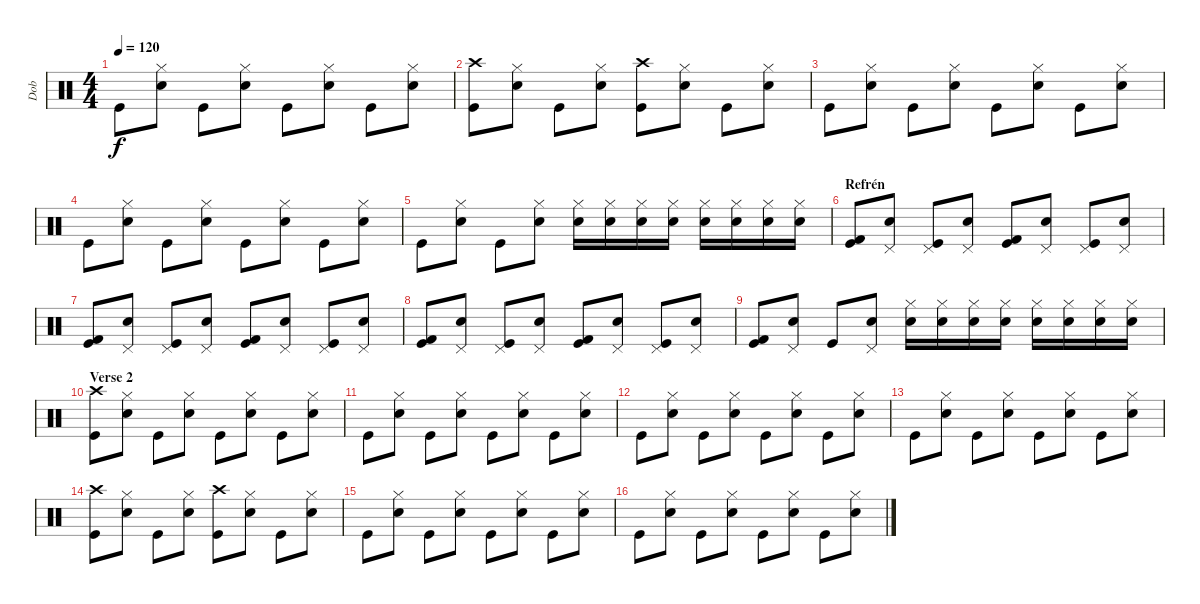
\track ("Dob" "Dob") {instrument percussion}
\staff {score}
\articulation defaults
\ts (4 4)
\tempo 120
\clef neutral
\ks c "Kick (hit)".8{dy f}
("Hi-Hat (closed)" "Electric Snare (hit)").8 "Kick (hit)".8 ("Hi-Hat (closed)" "Electric Snare (hit)").8 "Kick (hit)".8 ("Hi-Hat (closed)" "Electric Snare (hit)").8 "Kick (hit)".8 ("Hi-Hat (closed)" "Electric Snare (hit)").8 |
("Kick (hit)" "Crash high (hit)").8 ("Hi-Hat (closed)" "Electric Snare (hit)").8 "Kick (hit)".8 ("Hi-Hat (closed)" "Electric Snare (hit)").8 ("Kick (hit)" "Crash high (hit)").8 ("Hi-Hat (closed)" "Electric Snare (hit)").8 "Kick (hit)".8 ("Hi-Hat (closed)" "Electric Snare (hit)").8 |
"Kick (hit)".8 ("Hi-Hat (closed)" "Electric Snare (hit)").8 "Kick (hit)".8 ("Hi-Hat (closed)" "Electric Snare (hit)").8 "Kick (hit)".8 ("Hi-Hat (closed)" "Electric Snare (hit)").8 "Kick (hit)".8 ("Hi-Hat (closed)" "Electric Snare (hit)").8 |
"Kick (hit)".8 ("Hi-Hat (closed)" "Electric Snare (hit)").8 "Kick (hit)".8 ("Hi-Hat (closed)" "Electric Snare (hit)").8 "Kick (hit)".8 ("Hi-Hat (closed)" "Electric Snare (hit)").8 "Kick (hit)".8 ("Hi-Hat (closed)" "Electric Snare (hit)").8 |
"Kick (hit)".8 ("Hi-Hat (closed)" "Electric Snare (hit)").8 "Kick (hit)".8 ("Hi-Hat (closed)" "Electric Snare (hit)").8 ("Hi-Hat (closed)" "Electric Snare (hit)").16 ("Hi-Hat (closed)" "Electric Snare (hit)").16 ("Hi-Hat (closed)" "Electric Snare (hit)").16 ("Hi-Hat (closed)" "Electric Snare (hit)").16 ("Hi-Hat (closed)" "Electric Snare (hit)").16 ("Hi-Hat (closed)" "Electric Snare (hit)").16 ("Hi-Hat (closed)" "Electric Snare (hit)").16 ("Hi-Hat (closed)" "Electric Snare (hit)").16 |
\section ("" "Refrén")
("Kick (hit)" "Kick (hit) 2").8 ("Pedal Hi-Hat (hit)" "Electric Snare (hit)").8 ("Pedal Hi-Hat (hit)" "Kick (hit)").8 ("Pedal Hi-Hat (hit)" "Electric Snare (hit)").8 ("Kick (hit)" "Kick (hit) 2").8 ("Pedal Hi-Hat (hit)" "Electric Snare (hit)").8 ("Pedal Hi-Hat (hit)" "Kick (hit)").8 ("Pedal Hi-Hat (hit)" "Electric Snare (hit)").8 |
("Kick (hit)" "Kick (hit) 2").8 ("Pedal Hi-Hat (hit)" "Electric Snare (hit)").8 ("Pedal Hi-Hat (hit)" "Kick (hit)").8 ("Pedal Hi-Hat (hit)" "Electric Snare (hit)").8 ("Kick (hit)" "Kick (hit) 2").8 ("Pedal Hi-Hat (hit)" "Electric Snare (hit)").8 ("Pedal Hi-Hat (hit)" "Kick (hit)").8 ("Pedal Hi-Hat (hit)" "Electric Snare (hit)").8 |
("Kick (hit)" "Kick (hit) 2").8 ("Pedal Hi-Hat (hit)" "Electric Snare (hit)").8 ("Pedal Hi-Hat (hit)" "Kick (hit)").8 ("Pedal Hi-Hat (hit)" "Electric Snare (hit)").8 ("Kick (hit)" "Kick (hit) 2").8 ("Pedal Hi-Hat (hit)" "Electric Snare (hit)").8 ("Pedal Hi-Hat (hit)" "Kick (hit)").8 ("Pedal Hi-Hat (hit)" "Electric Snare (hit)").8 |
("Kick (hit)" "Kick (hit) 2").8 ("Pedal Hi-Hat (hit)" "Electric Snare (hit)").8 "Kick (hit)".8 ("Pedal Hi-Hat (hit)" "Electric Snare (hit)").8 ("Hi-Hat (closed)" "Electric Snare (hit)").16 ("Hi-Hat (closed)" "Electric Snare (hit)").16 ("Hi-Hat (closed)" "Electric Snare (hit)").16 ("Hi-Hat (closed)" "Electric Snare (hit)").16 ("Hi-Hat (closed)" "Electric Snare (hit)").16 ("Hi-Hat (closed)" "Electric Snare (hit)").16 ("Hi-Hat (closed)" "Electric Snare (hit)").16 ("Hi-Hat (closed)" "Electric Snare (hit)").16 |
\section ("" "Verse 2")
("Kick (hit)" "Crash high (hit)").8 ("Hi-Hat (closed)" "Electric Snare (hit)").8 "Kick (hit)".8 ("Hi-Hat (closed)" "Electric Snare (hit)").8 "Kick (hit)".8 ("Hi-Hat (closed)" "Electric Snare (hit)").8 "Kick (hit)".8 ("Hi-Hat (closed)" "Electric Snare (hit)").8 |
"Kick (hit)".8 ("Hi-Hat (closed)" "Electric Snare (hit)").8 "Kick (hit)".8 ("Hi-Hat (closed)" "Electric Snare (hit)").8 "Kick (hit)".8 ("Hi-Hat (closed)" "Electric Snare (hit)").8 "Kick (hit)".8 ("Hi-Hat (closed)" "Electric Snare (hit)").8 |
"Kick (hit)".8 ("Hi-Hat (closed)" "Electric Snare (hit)").8 "Kick (hit)".8 ("Hi-Hat (closed)" "Electric Snare (hit)").8 "Kick (hit)".8 ("Hi-Hat (closed)" "Electric Snare (hit)").8 "Kick (hit)".8 ("Hi-Hat (closed)" "Electric Snare (hit)").8 |
"Kick (hit)".8 ("Hi-Hat (closed)" "Electric Snare (hit)").8 "Kick (hit)".8 ("Hi-Hat (closed)" "Electric Snare (hit)").8 "Kick (hit)".8 ("Hi-Hat (closed)" "Electric Snare (hit)").8 "Kick (hit)".8 ("Hi-Hat (closed)" "Electric Snare (hit)").8 |
("Kick (hit)" "Crash high (hit)").8 ("Hi-Hat (closed)" "Electric Snare (hit)").8 "Kick (hit)".8 ("Hi-Hat (closed)" "Electric Snare (hit)").8 ("Kick (hit)" "Crash high (hit)").8 ("Hi-Hat (closed)" "Electric Snare (hit)").8 "Kick (hit)".8 ("Hi-Hat (closed)" "Electric Snare (hit)").8 |
"Kick (hit)".8 ("Hi-Hat (closed)" "Electric Snare (hit)").8 "Kick (hit)".8 ("Hi-Hat (closed)" "Electric Snare (hit)").8 "Kick (hit)".8 ("Hi-Hat (closed)" "Electric Snare (hit)").8 "Kick (hit)".8 ("Hi-Hat (closed)" "Electric Snare (hit)").8 |
"Kick (hit)".8 ("Hi-Hat (closed)" "Electric Snare (hit)").8 "Kick (hit)".8 ("Hi-Hat (closed)" "Electric Snare (hit)").8 "Kick (hit)".8 ("Hi-Hat (closed)" "Electric Snare (hit)").8 "Kick (hit)".8 ("Hi-Hat (closed)" "Electric Snare (hit)").8
